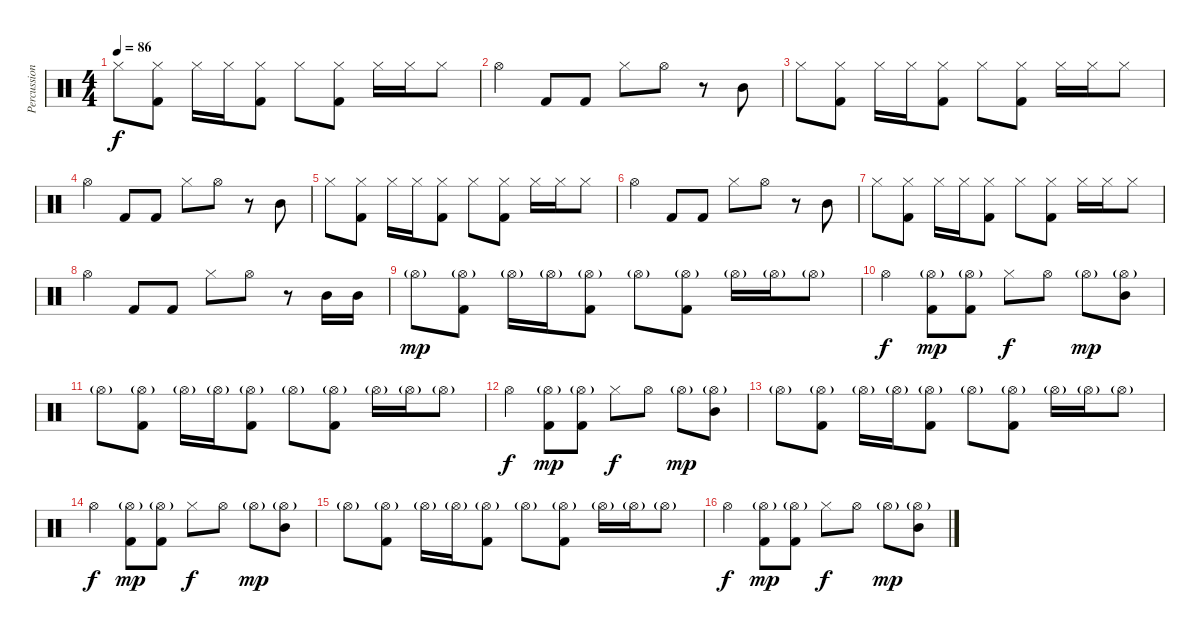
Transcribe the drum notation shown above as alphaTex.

\track ("Percussions" "Percussion") {instrument percussion}
\staff {score}
\articulation defaults
\ts (4 4)
\tempo 86
\clef neutral
\ks c "Hi-Hat (closed)".8{dy f}
("Hi-Hat (closed)" "Kick (hit) 2").8 "Hi-Hat (closed)".16 "Hi-Hat (closed)".16 ("Hi-Hat (closed)" "Kick (hit) 2").8 "Hi-Hat (closed)".8 ("Hi-Hat (closed)" "Kick (hit) 2").8 "Hi-Hat (closed)".16 "Hi-Hat (closed)".16 "Hi-Hat (closed)".8 |
"Hi-Hat (open)".4 "Kick (hit) 2".8 "Kick (hit) 2".8 "Hi-Hat (closed)".8 "Hi-Hat (open)".8 r.8 "Mid Tom (hit)".8 |
"Hi-Hat (closed)".8 ("Hi-Hat (closed)" "Kick (hit) 2").8 "Hi-Hat (closed)".16 "Hi-Hat (closed)".16 ("Hi-Hat (closed)" "Kick (hit) 2").8 "Hi-Hat (closed)".8 ("Hi-Hat (closed)" "Kick (hit) 2").8 "Hi-Hat (closed)".16 "Hi-Hat (closed)".16 "Hi-Hat (closed)".8 |
"Hi-Hat (open)".4 "Kick (hit) 2".8 "Kick (hit) 2".8 "Hi-Hat (closed)".8 "Hi-Hat (open)".8 r.8 "Mid Tom (hit)".8 |
"Hi-Hat (closed)".8 ("Hi-Hat (closed)" "Kick (hit) 2").8 "Hi-Hat (closed)".16 "Hi-Hat (closed)".16 ("Hi-Hat (closed)" "Kick (hit) 2").8 "Hi-Hat (closed)".8 ("Hi-Hat (closed)" "Kick (hit) 2").8 "Hi-Hat (closed)".16 "Hi-Hat (closed)".16 "Hi-Hat (closed)".8 |
"Hi-Hat (open)".4 "Kick (hit) 2".8 "Kick (hit) 2".8 "Hi-Hat (closed)".8 "Hi-Hat (open)".8 r.8 "Mid Tom (hit)".8 |
"Hi-Hat (closed)".8 ("Hi-Hat (closed)" "Kick (hit) 2").8 "Hi-Hat (closed)".16 "Hi-Hat (closed)".16 ("Hi-Hat (closed)" "Kick (hit) 2").8 "Hi-Hat (closed)".8 ("Hi-Hat (closed)" "Kick (hit) 2").8 "Hi-Hat (closed)".16 "Hi-Hat (closed)".16 "Hi-Hat (closed)".8 |
"Hi-Hat (open)".4 "Kick (hit) 2".8 "Kick (hit) 2".8 "Hi-Hat (closed)".8 "Hi-Hat (open)".8 r.8 "Mid Tom (hit)".16 "Mid Tom (hit)".16 |
"Hi-Hat (open)"{g}.8{dy mp} ("Hi-Hat (open)"{g} "Kick (hit) 2").8 "Hi-Hat (open)"{g}.16 "Hi-Hat (open)"{g}.16 ("Hi-Hat (open)"{g} "Kick (hit) 2").8 "Hi-Hat (open)"{g}.8 ("Hi-Hat (open)"{g} "Kick (hit) 2").8 "Hi-Hat (open)"{g}.16 "Hi-Hat (open)"{g}.16 "Hi-Hat (open)"{g}.8 |
"Hi-Hat (open)".4{dy f} ("Hi-Hat (open)"{g} "Kick (hit) 2").8{dy mp} ("Hi-Hat (open)"{g} "Kick (hit) 2").8 "Hi-Hat (closed)".8{dy f} "Hi-Hat (open)".8 "Hi-Hat (open)"{g}.8{dy mp} ("Hi-Hat (open)"{g} "Mid Tom (hit)").8 |
"Hi-Hat (open)"{g}.8 ("Hi-Hat (open)"{g} "Kick (hit) 2").8 "Hi-Hat (open)"{g}.16 "Hi-Hat (open)"{g}.16 ("Hi-Hat (open)"{g} "Kick (hit) 2").8 "Hi-Hat (open)"{g}.8 ("Hi-Hat (open)"{g} "Kick (hit) 2").8 "Hi-Hat (open)"{g}.16 "Hi-Hat (open)"{g}.16 "Hi-Hat (open)"{g}.8 |
"Hi-Hat (open)".4{dy f} ("Hi-Hat (open)"{g} "Kick (hit) 2").8{dy mp} ("Hi-Hat (open)"{g} "Kick (hit) 2").8 "Hi-Hat (closed)".8{dy f} "Hi-Hat (open)".8 "Hi-Hat (open)"{g}.8{dy mp} ("Hi-Hat (open)"{g} "Mid Tom (hit)").8 |
"Hi-Hat (open)"{g}.8 ("Hi-Hat (open)"{g} "Kick (hit) 2").8 "Hi-Hat (open)"{g}.16 "Hi-Hat (open)"{g}.16 ("Hi-Hat (open)"{g} "Kick (hit) 2").8 "Hi-Hat (open)"{g}.8 ("Hi-Hat (open)"{g} "Kick (hit) 2").8 "Hi-Hat (open)"{g}.16 "Hi-Hat (open)"{g}.16 "Hi-Hat (open)"{g}.8 |
"Hi-Hat (open)".4{dy f} ("Hi-Hat (open)"{g} "Kick (hit) 2").8{dy mp} ("Hi-Hat (open)"{g} "Kick (hit) 2").8 "Hi-Hat (closed)".8{dy f} "Hi-Hat (open)".8 "Hi-Hat (open)"{g}.8{dy mp} ("Hi-Hat (open)"{g} "Mid Tom (hit)").8 |
"Hi-Hat (open)"{g}.8 ("Hi-Hat (open)"{g} "Kick (hit) 2").8 "Hi-Hat (open)"{g}.16 "Hi-Hat (open)"{g}.16 ("Hi-Hat (open)"{g} "Kick (hit) 2").8 "Hi-Hat (open)"{g}.8 ("Hi-Hat (open)"{g} "Kick (hit) 2").8 "Hi-Hat (open)"{g}.16 "Hi-Hat (open)"{g}.16 "Hi-Hat (open)"{g}.8 |
"Hi-Hat (open)".4{dy f} ("Hi-Hat (open)"{g} "Kick (hit) 2").8{dy mp} ("Hi-Hat (open)"{g} "Kick (hit) 2").8 "Hi-Hat (closed)".8{dy f} "Hi-Hat (open)".8 "Hi-Hat (open)"{g}.8{dy mp} ("Hi-Hat (open)"{g} "Mid Tom (hit)").8
